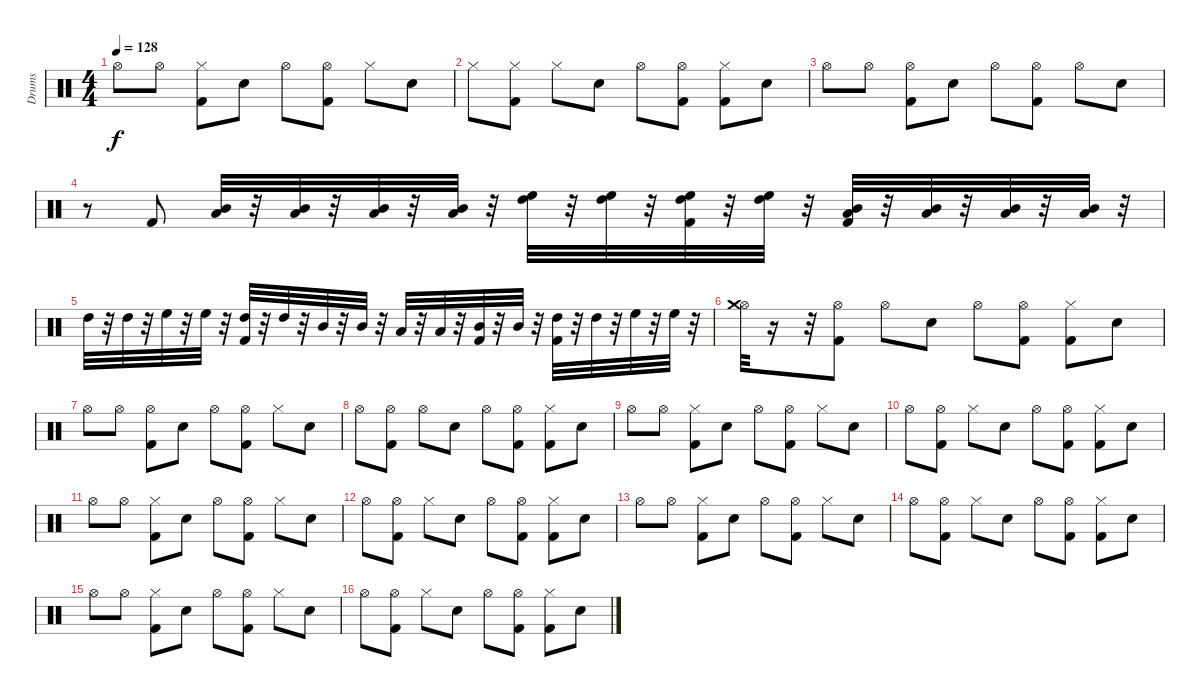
\track ("Drums" "Drums") {instrument percussion}
\staff {score}
\articulation defaults
\ts (4 4)
\tempo 128
\clef neutral
\ks c "Hi-Hat (open)".8{dy f} "Hi-Hat (open)".8
("Hi-Hat (closed)" "Kick (hit) 2").8 "Snare (hit) 2".8 "Hi-Hat (open)".8 ("Hi-Hat (open)" "Kick (hit) 2").8 "Hi-Hat (closed)".8 "Snare (hit) 2".8 |
"Hi-Hat (closed)".8 ("Hi-Hat (closed)" "Kick (hit) 2").8 "Hi-Hat (closed)".8 "Snare (hit) 2".8 "Hi-Hat (open)".8 ("Hi-Hat (open)" "Kick (hit) 2").8 ("Hi-Hat (closed)" "Kick (hit) 2").8 "Snare (hit) 2".8 |
"Hi-Hat (open)".8 "Hi-Hat (open)".8 ("Hi-Hat (open)" "Kick (hit) 2").8 "Snare (hit) 2".8 "Hi-Hat (open)".8 ("Hi-Hat (open)" "Kick (hit) 2").8 "Hi-Hat (open)".8 "Snare (hit) 2".8 |
r.8 "Kick (hit) 2".8 ("Mid Tom (hit)" "Low Tom (hit)").32 r.32 ("Mid Tom (hit)" "Low Tom (hit)").32 r.32 ("Mid Tom (hit)" "Low Tom (hit)").32 r.32 ("Mid Tom (hit)" "Low Tom (hit)").32 r.32 ("High Floor Tom (hit)" "High Tom (hit)").32 r.32 ("High Tom (hit)" "High Floor Tom (hit)").32 r.32 ("High Tom (hit)" "High Floor Tom (hit)" "Kick (hit) 2").32 r.32 ("High Tom (hit)" "High Floor Tom (hit)").32 r.32 ("Low Tom (hit)" "Mid Tom (hit)" "Kick (hit) 2").32 r.32 ("Low Tom (hit)" "Mid Tom (hit)").32 r.32 ("Low Tom (hit)" "Mid Tom (hit)").32 r.32 ("Low Tom (hit)" "Mid Tom (hit)").32 r.32 |
"High Tom (hit)".32 r.32 "High Tom (hit)".32 r.32 "High Floor Tom (hit)".32 r.32 "High Floor Tom (hit)".32 r.32 ("High Tom (hit)" "Kick (hit) 2").32 r.32 "High Tom (hit)".32 r.32 "Mid Tom (hit)".32 r.32 "Mid Tom (hit)".32 r.32 "Low Tom (hit)".32 r.32 "Low Tom (hit)".32 r.32 ("Mid Tom (hit)" "Kick (hit) 2").32 r.32 "Mid Tom (hit)".32 r.32 ("High Tom (hit)" "Kick (hit) 2").32 r.32 "High Tom (hit)".32 r.32 "High Floor Tom (hit)".32 r.32 "High Floor Tom (hit)".32 r.32 |
("Hi-Hat (open)" "Crash medium (hit)").32 r.16 r.32 ("Hi-Hat (open)" "Kick (hit) 2").8 "Hi-Hat (open)".8 "Snare (hit) 2".8 "Hi-Hat (open)".8 ("Hi-Hat (open)" "Kick (hit) 2").8 ("Hi-Hat (closed)" "Kick (hit) 2").8 "Snare (hit) 2".8 |
"Hi-Hat (open)".8 "Hi-Hat (open)".8 ("Hi-Hat (open)" "Kick (hit) 2").8 "Snare (hit) 2".8 "Hi-Hat (open)".8 ("Hi-Hat (open)" "Kick (hit) 2").8 "Hi-Hat (closed)".8 "Snare (hit) 2".8 |
"Hi-Hat (open)".8 ("Hi-Hat (open)" "Kick (hit) 2").8 "Hi-Hat (open)".8 "Snare (hit) 2".8 "Hi-Hat (open)".8 ("Hi-Hat (open)" "Kick (hit) 2").8 ("Hi-Hat (closed)" "Kick (hit) 2").8 "Snare (hit) 2".8 |
"Hi-Hat (open)".8 "Hi-Hat (open)".8 ("Hi-Hat (closed)" "Kick (hit) 2").8 "Snare (hit) 2".8 "Hi-Hat (open)".8 ("Hi-Hat (open)" "Kick (hit) 2").8 "Hi-Hat (closed)".8 "Snare (hit) 2".8 |
"Hi-Hat (open)".8 ("Hi-Hat (open)" "Kick (hit) 2").8 "Hi-Hat (closed)".8 "Snare (hit) 2".8 "Hi-Hat (open)".8 ("Hi-Hat (open)" "Kick (hit) 2").8 ("Hi-Hat (closed)" "Kick (hit) 2").8 "Snare (hit) 2".8 |
"Hi-Hat (open)".8 "Hi-Hat (open)".8 ("Hi-Hat (closed)" "Kick (hit) 2").8 "Snare (hit) 2".8 "Hi-Hat (open)".8 ("Hi-Hat (open)" "Kick (hit) 2").8 "Hi-Hat (closed)".8 "Snare (hit) 2".8 |
"Hi-Hat (open)".8 ("Hi-Hat (open)" "Kick (hit) 2").8 "Hi-Hat (closed)".8 "Snare (hit) 2".8 "Hi-Hat (open)".8 ("Hi-Hat (open)" "Kick (hit) 2").8 ("Hi-Hat (closed)" "Kick (hit) 2").8 "Snare (hit) 2".8 |
"Hi-Hat (open)".8 "Hi-Hat (open)".8 ("Hi-Hat (closed)" "Kick (hit) 2").8 "Snare (hit) 2".8 "Hi-Hat (open)".8 ("Hi-Hat (open)" "Kick (hit) 2").8 "Hi-Hat (closed)".8 "Snare (hit) 2".8 |
"Hi-Hat (open)".8 ("Hi-Hat (open)" "Kick (hit) 2").8 "Hi-Hat (closed)".8 "Snare (hit) 2".8 "Hi-Hat (open)".8 ("Hi-Hat (open)" "Kick (hit) 2").8 ("Hi-Hat (closed)" "Kick (hit) 2").8 "Snare (hit) 2".8 |
"Hi-Hat (open)".8 "Hi-Hat (open)".8 ("Hi-Hat (closed)" "Kick (hit) 2").8 "Snare (hit) 2".8 "Hi-Hat (open)".8 ("Hi-Hat (open)" "Kick (hit) 2").8 "Hi-Hat (closed)".8 "Snare (hit) 2".8 |
"Hi-Hat (open)".8 ("Hi-Hat (open)" "Kick (hit) 2").8 "Hi-Hat (closed)".8 "Snare (hit) 2".8 "Hi-Hat (open)".8 ("Hi-Hat (open)" "Kick (hit) 2").8 ("Hi-Hat (closed)" "Kick (hit) 2").8 "Snare (hit) 2".8
